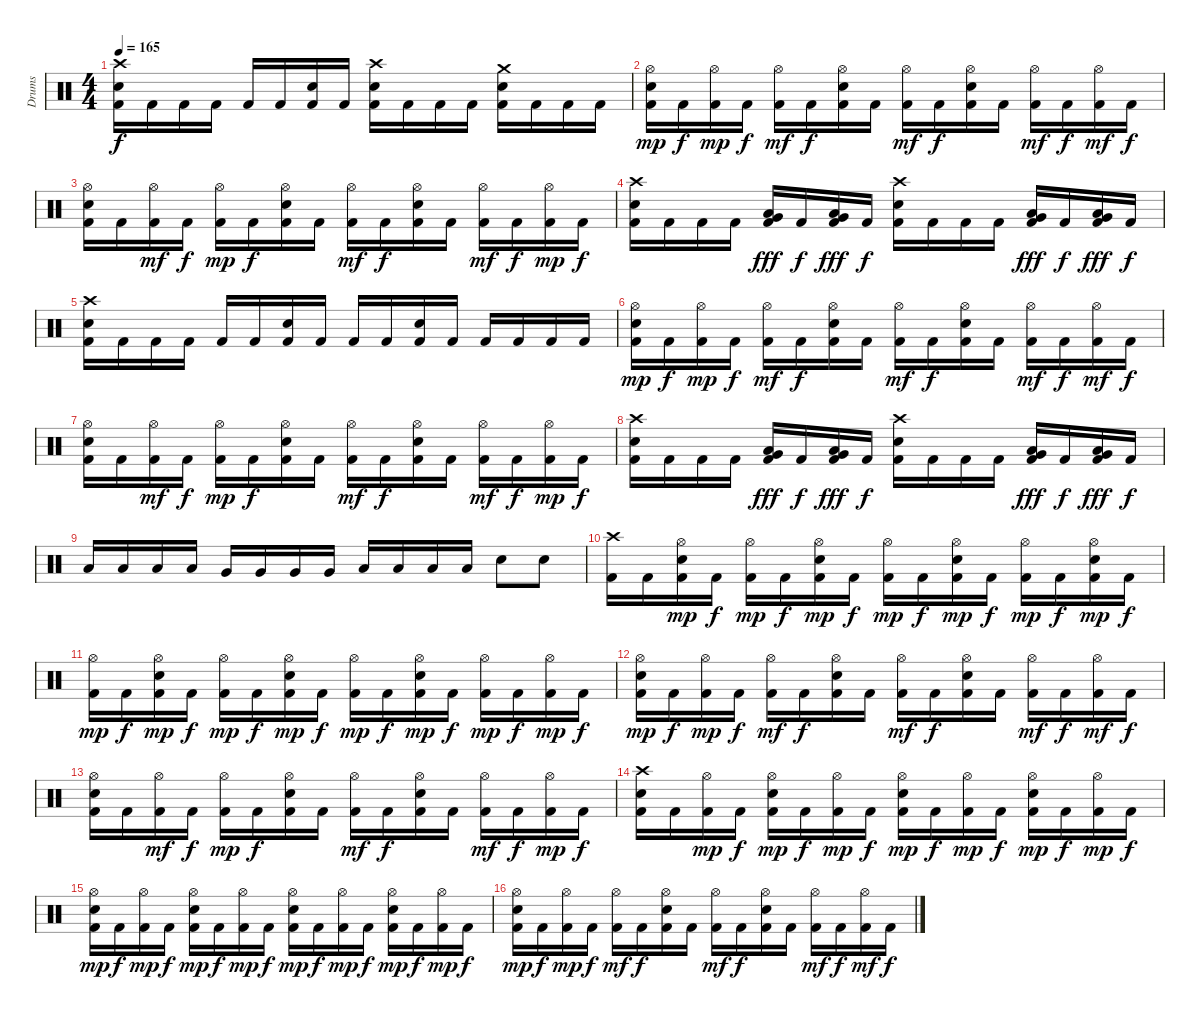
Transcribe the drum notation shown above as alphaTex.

\track ("Drums" "Drums") {instrument percussion}
\staff {score}
\articulation defaults
\ts (4 4)
\tempo 165
\clef neutral
\ks c
("Crash high (hit)" "Snare (hit) 2" "Kick (hit) 2").16{dy f} "Kick (hit) 2".16 "Kick (hit) 2".16 "Kick (hit) 2".16 "Kick (hit) 2".16 "Kick (hit) 2".16 ("Snare (hit) 2" "Kick (hit) 2").16 "Kick (hit) 2".16 ("Crash high (hit)" "Snare (hit) 2" "Kick (hit) 2").16 "Kick (hit) 2".16 "Kick (hit) 2".16 "Kick (hit) 2".16 ("Crash medium (hit)" "Snare (hit) 2" "Kick (hit) 2").16 "Kick (hit) 2".16 "Kick (hit) 2".16 "Kick (hit) 2".16 |
("Hi-Hat (open)" "Snare (hit) 2" "Kick (hit) 2").16{dy mp} "Kick (hit) 2".16{dy f} ("Hi-Hat (open)" "Kick (hit) 2").16{dy mp} "Kick (hit) 2".16{dy f} ("Hi-Hat (open)" "Kick (hit) 2").16{dy mf} "Kick (hit) 2".16{dy f} ("Hi-Hat (open)" "Snare (hit) 2" "Kick (hit) 2").16 "Kick (hit) 2".16 ("Hi-Hat (open)" "Kick (hit) 2").16{dy mf} "Kick (hit) 2".16{dy f} ("Hi-Hat (open)" "Snare (hit) 2" "Kick (hit) 2").16 "Kick (hit) 2".16 ("Hi-Hat (open)" "Kick (hit) 2").16{dy mf} "Kick (hit) 2".16{dy f} ("Hi-Hat (open)" "Kick (hit) 2").16{dy mf} "Kick (hit) 2".16{dy f} |
("Hi-Hat (open)" "Snare (hit) 2" "Kick (hit) 2").16 "Kick (hit) 2".16 ("Hi-Hat (open)" "Kick (hit) 2").16{dy mf} "Kick (hit) 2".16{dy f} ("Hi-Hat (open)" "Kick (hit) 2").16{dy mp} "Kick (hit) 2".16{dy f} ("Hi-Hat (open)" "Snare (hit) 2" "Kick (hit) 2").16 "Kick (hit) 2".16 ("Hi-Hat (open)" "Kick (hit) 2").16{dy mf} "Kick (hit) 2".16{dy f} ("Hi-Hat (open)" "Snare (hit) 2" "Kick (hit) 2").16 "Kick (hit) 2".16 ("Hi-Hat (open)" "Kick (hit) 2").16{dy mf} "Kick (hit) 2".16{dy f} ("Hi-Hat (open)" "Kick (hit) 2").16{dy mp} "Kick (hit) 2".16{dy f} |
("Crash high (hit)" "Snare (hit) 2" "Kick (hit) 2").16 "Kick (hit) 2".16 "Kick (hit) 2".16 "Kick (hit) 2".16 ("Low Tom (hit)" "Very Low Tom (hit)" "Kick (hit) 2").16{dy fff} "Kick (hit) 2".16{dy f} ("Low Tom (hit)" "Very Low Tom (hit)" "Kick (hit) 2").16{dy fff} "Kick (hit) 2".16{dy f} ("Crash high (hit)" "Snare (hit) 2" "Kick (hit) 2").16 "Kick (hit) 2".16 "Kick (hit) 2".16 "Kick (hit) 2".16 ("Low Tom (hit)" "Very Low Tom (hit)" "Kick (hit) 2").16{dy fff} "Kick (hit) 2".16{dy f} ("Low Tom (hit)" "Very Low Tom (hit)" "Kick (hit) 2").16{dy fff} "Kick (hit) 2".16{dy f} |
("Crash high (hit)" "Snare (hit) 2" "Kick (hit) 2").16 "Kick (hit) 2".16 "Kick (hit) 2".16 "Kick (hit) 2".16 "Kick (hit) 2".16 "Kick (hit) 2".16 ("Snare (hit) 2" "Kick (hit) 2").16 "Kick (hit) 2".16 "Kick (hit) 2".16 "Kick (hit) 2".16 ("Snare (hit) 2" "Kick (hit) 2").16 "Kick (hit) 2".16 "Kick (hit) 2".16 "Kick (hit) 2".16 "Kick (hit) 2".16 "Kick (hit) 2".16 |
("Hi-Hat (open)" "Snare (hit) 2" "Kick (hit) 2").16{dy mp} "Kick (hit) 2".16{dy f} ("Hi-Hat (open)" "Kick (hit) 2").16{dy mp} "Kick (hit) 2".16{dy f} ("Hi-Hat (open)" "Kick (hit) 2").16{dy mf} "Kick (hit) 2".16{dy f} ("Hi-Hat (open)" "Snare (hit) 2" "Kick (hit) 2").16 "Kick (hit) 2".16 ("Hi-Hat (open)" "Kick (hit) 2").16{dy mf} "Kick (hit) 2".16{dy f} ("Hi-Hat (open)" "Snare (hit) 2" "Kick (hit) 2").16 "Kick (hit) 2".16 ("Hi-Hat (open)" "Kick (hit) 2").16{dy mf} "Kick (hit) 2".16{dy f} ("Hi-Hat (open)" "Kick (hit) 2").16{dy mf} "Kick (hit) 2".16{dy f} |
("Hi-Hat (open)" "Snare (hit) 2" "Kick (hit) 2").16 "Kick (hit) 2".16 ("Hi-Hat (open)" "Kick (hit) 2").16{dy mf} "Kick (hit) 2".16{dy f} ("Hi-Hat (open)" "Kick (hit) 2").16{dy mp} "Kick (hit) 2".16{dy f} ("Hi-Hat (open)" "Snare (hit) 2" "Kick (hit) 2").16 "Kick (hit) 2".16 ("Hi-Hat (open)" "Kick (hit) 2").16{dy mf} "Kick (hit) 2".16{dy f} ("Hi-Hat (open)" "Snare (hit) 2" "Kick (hit) 2").16 "Kick (hit) 2".16 ("Hi-Hat (open)" "Kick (hit) 2").16{dy mf} "Kick (hit) 2".16{dy f} ("Hi-Hat (open)" "Kick (hit) 2").16{dy mp} "Kick (hit) 2".16{dy f} |
("Crash high (hit)" "Snare (hit) 2" "Kick (hit) 2").16 "Kick (hit) 2".16 "Kick (hit) 2".16 "Kick (hit) 2".16 ("Low Tom (hit)" "Very Low Tom (hit)" "Kick (hit) 2").16{dy fff} "Kick (hit) 2".16{dy f} ("Low Tom (hit)" "Very Low Tom (hit)" "Kick (hit) 2").16{dy fff} "Kick (hit) 2".16{dy f} ("Crash high (hit)" "Snare (hit) 2" "Kick (hit) 2").16 "Kick (hit) 2".16 "Kick (hit) 2".16 "Kick (hit) 2".16 ("Low Tom (hit)" "Very Low Tom (hit)" "Kick (hit) 2").16{dy fff} "Kick (hit) 2".16{dy f} ("Low Tom (hit)" "Very Low Tom (hit)" "Kick (hit) 2").16{dy fff} "Kick (hit) 2".16{dy f} |
"Low Tom (hit)".16 "Low Tom (hit)".16 "Low Tom (hit)".16 "Low Tom (hit)".16 "Very Low Tom (hit)".16 "Very Low Tom (hit)".16 "Very Low Tom (hit)".16 "Very Low Tom (hit)".16 "Low Floor Tom (hit)".16 "Low Floor Tom (hit)".16 "Low Floor Tom (hit)".16 "Low Floor Tom (hit)".16 "Snare (hit) 2".8 "Snare (hit) 2".8 |
("Crash high (hit)" "Kick (hit) 2").16 "Kick (hit) 2".16 ("Hi-Hat (open)" "Snare (hit) 2" "Kick (hit) 2").16{dy mp} "Kick (hit) 2".16{dy f} ("Hi-Hat (open)" "Kick (hit) 2").16{dy mp} "Kick (hit) 2".16{dy f} ("Hi-Hat (open)" "Snare (hit) 2" "Kick (hit) 2").16{dy mp} "Kick (hit) 2".16{dy f} ("Hi-Hat (open)" "Kick (hit) 2").16{dy mp} "Kick (hit) 2".16{dy f} ("Hi-Hat (open)" "Snare (hit) 2" "Kick (hit) 2").16{dy mp} "Kick (hit) 2".16{dy f} ("Hi-Hat (open)" "Kick (hit) 2").16{dy mp} "Kick (hit) 2".16{dy f} ("Hi-Hat (open)" "Snare (hit) 2" "Kick (hit) 2").16{dy mp} "Kick (hit) 2".16{dy f} |
("Hi-Hat (open)" "Kick (hit) 2").16{dy mp} "Kick (hit) 2".16{dy f} ("Hi-Hat (open)" "Snare (hit) 2" "Kick (hit) 2").16{dy mp} "Kick (hit) 2".16{dy f} ("Hi-Hat (open)" "Kick (hit) 2").16{dy mp} "Kick (hit) 2".16{dy f} ("Hi-Hat (open)" "Snare (hit) 2" "Kick (hit) 2").16{dy mp} "Kick (hit) 2".16{dy f} ("Hi-Hat (open)" "Kick (hit) 2").16{dy mp} "Kick (hit) 2".16{dy f} ("Hi-Hat (open)" "Snare (hit) 2" "Kick (hit) 2").16{dy mp} "Kick (hit) 2".16{dy f} ("Hi-Hat (open)" "Kick (hit) 2").16{dy mp} "Kick (hit) 2".16{dy f} ("Hi-Hat (open)" "Kick (hit) 2").16{dy mp} "Kick (hit) 2".16{dy f} |
("Hi-Hat (open)" "Snare (hit) 2" "Kick (hit) 2").16{dy mp} "Kick (hit) 2".16{dy f} ("Hi-Hat (open)" "Kick (hit) 2").16{dy mp} "Kick (hit) 2".16{dy f} ("Hi-Hat (open)" "Kick (hit) 2").16{dy mf} "Kick (hit) 2".16{dy f} ("Hi-Hat (open)" "Snare (hit) 2" "Kick (hit) 2").16 "Kick (hit) 2".16 ("Hi-Hat (open)" "Kick (hit) 2").16{dy mf} "Kick (hit) 2".16{dy f} ("Hi-Hat (open)" "Snare (hit) 2" "Kick (hit) 2").16 "Kick (hit) 2".16 ("Hi-Hat (open)" "Kick (hit) 2").16{dy mf} "Kick (hit) 2".16{dy f} ("Hi-Hat (open)" "Kick (hit) 2").16{dy mf} "Kick (hit) 2".16{dy f} |
("Hi-Hat (open)" "Snare (hit) 2" "Kick (hit) 2").16 "Kick (hit) 2".16 ("Hi-Hat (open)" "Kick (hit) 2").16{dy mf} "Kick (hit) 2".16{dy f} ("Hi-Hat (open)" "Kick (hit) 2").16{dy mp} "Kick (hit) 2".16{dy f} ("Hi-Hat (open)" "Snare (hit) 2" "Kick (hit) 2").16 "Kick (hit) 2".16 ("Hi-Hat (open)" "Kick (hit) 2").16{dy mf} "Kick (hit) 2".16{dy f} ("Hi-Hat (open)" "Snare (hit) 2" "Kick (hit) 2").16 "Kick (hit) 2".16 ("Hi-Hat (open)" "Kick (hit) 2").16{dy mf} "Kick (hit) 2".16{dy f} ("Hi-Hat (open)" "Kick (hit) 2").16{dy mp} "Kick (hit) 2".16{dy f} |
("Crash high (hit)" "Snare (hit) 2" "Kick (hit) 2").16 "Kick (hit) 2".16 ("Hi-Hat (open)" "Kick (hit) 2").16{dy mp} "Kick (hit) 2".16{dy f} ("Hi-Hat (open)" "Snare (hit) 2" "Kick (hit) 2").16{dy mp} "Kick (hit) 2".16{dy f} ("Hi-Hat (open)" "Kick (hit) 2").16{dy mp} "Kick (hit) 2".16{dy f} ("Hi-Hat (open)" "Snare (hit) 2" "Kick (hit) 2").16{dy mp} "Kick (hit) 2".16{dy f} ("Hi-Hat (open)" "Kick (hit) 2").16{dy mp} "Kick (hit) 2".16{dy f} ("Hi-Hat (open)" "Snare (hit) 2" "Kick (hit) 2").16{dy mp} "Kick (hit) 2".16{dy f} ("Hi-Hat (open)" "Kick (hit) 2").16{dy mp} "Kick (hit) 2".16{dy f} |
("Hi-Hat (open)" "Snare (hit) 2" "Kick (hit) 2").16{dy mp} "Kick (hit) 2".16{dy f} ("Hi-Hat (open)" "Kick (hit) 2").16{dy mp} "Kick (hit) 2".16{dy f} ("Hi-Hat (open)" "Snare (hit) 2" "Kick (hit) 2").16{dy mp} "Kick (hit) 2".16{dy f} ("Hi-Hat (open)" "Kick (hit) 2").16{dy mp} "Kick (hit) 2".16{dy f} ("Hi-Hat (open)" "Snare (hit) 2" "Kick (hit) 2").16{dy mp} "Kick (hit) 2".16{dy f} ("Hi-Hat (open)" "Kick (hit) 2").16{dy mp} "Kick (hit) 2".16{dy f} ("Hi-Hat (open)" "Snare (hit) 2" "Kick (hit) 2").16{dy mp} "Kick (hit) 2".16{dy f} ("Hi-Hat (open)" "Kick (hit) 2").16{dy mp} "Kick (hit) 2".16{dy f} |
("Hi-Hat (open)" "Snare (hit) 2" "Kick (hit) 2").16{dy mp} "Kick (hit) 2".16{dy f} ("Hi-Hat (open)" "Kick (hit) 2").16{dy mp} "Kick (hit) 2".16{dy f} ("Hi-Hat (open)" "Kick (hit) 2").16{dy mf} "Kick (hit) 2".16{dy f} ("Hi-Hat (open)" "Snare (hit) 2" "Kick (hit) 2").16 "Kick (hit) 2".16 ("Hi-Hat (open)" "Kick (hit) 2").16{dy mf} "Kick (hit) 2".16{dy f} ("Hi-Hat (open)" "Snare (hit) 2" "Kick (hit) 2").16 "Kick (hit) 2".16 ("Hi-Hat (open)" "Kick (hit) 2").16{dy mf} "Kick (hit) 2".16{dy f} ("Hi-Hat (open)" "Kick (hit) 2").16{dy mf} "Kick (hit) 2".16{dy f}
